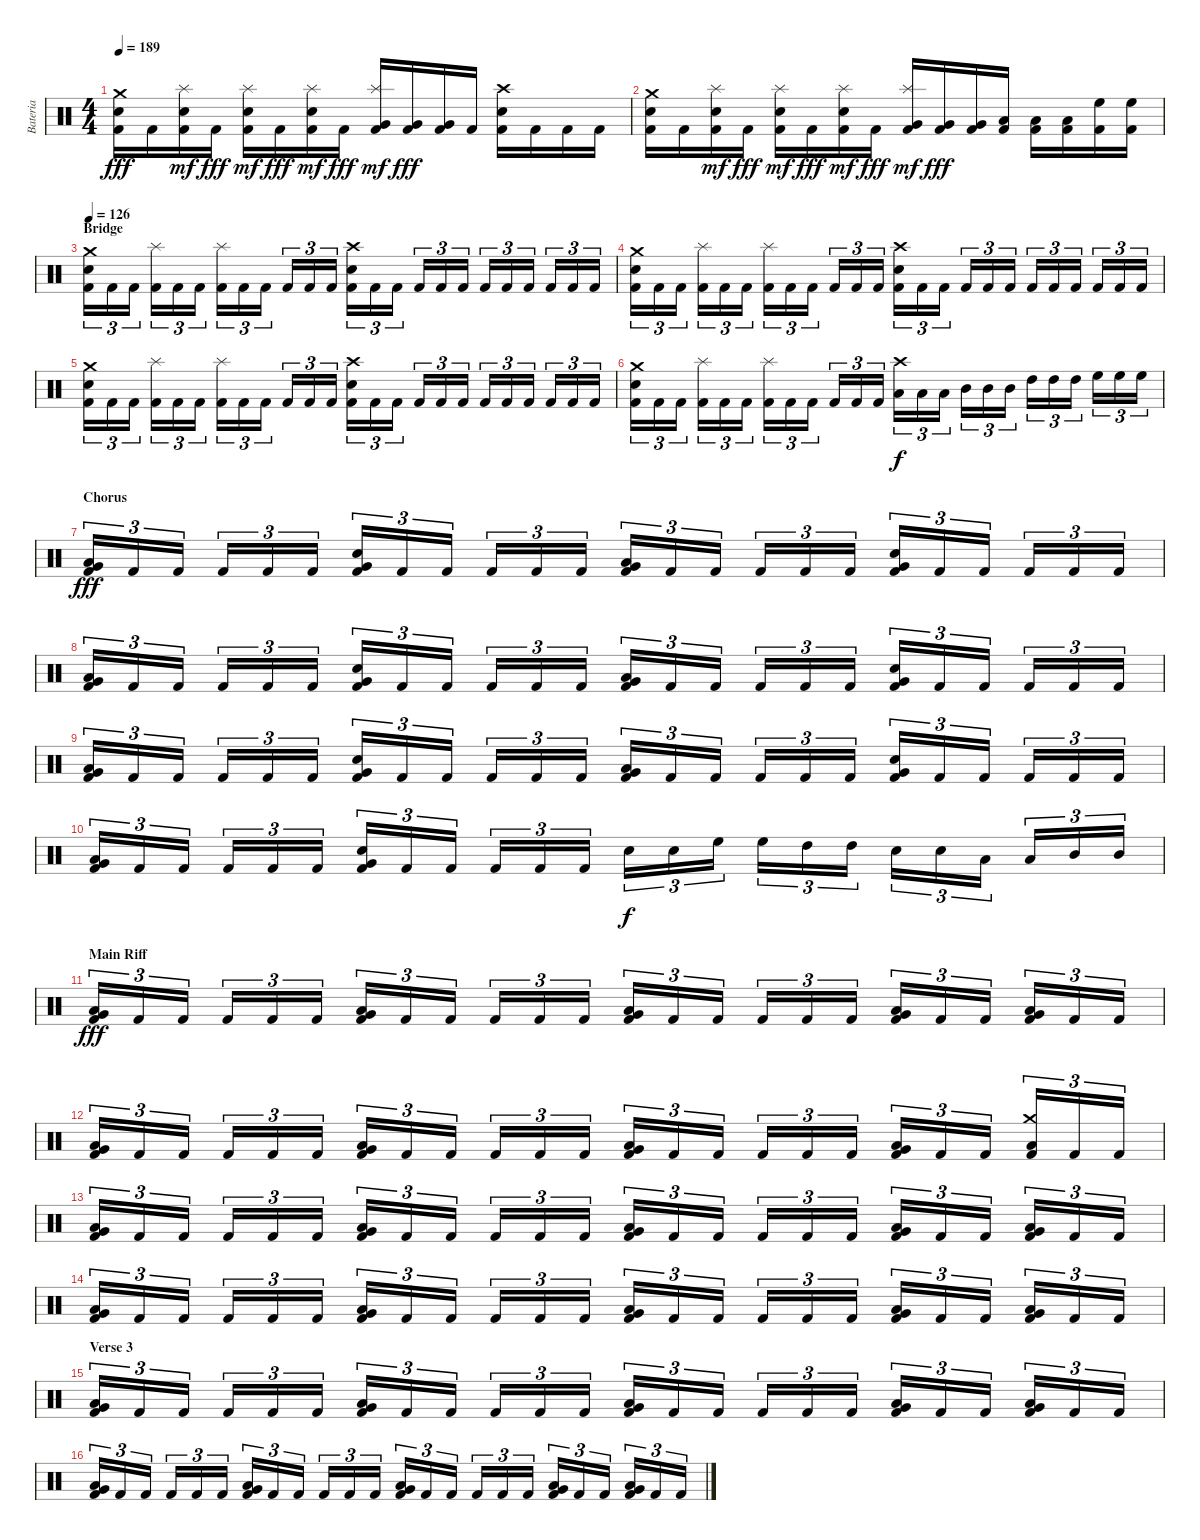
\track ("Bateria" "Bateria") {instrument percussion}
\staff {score}
\articulation defaults
\ts (4 4)
\tempo 189
\clef neutral
\ks c
("Kick (hit) 2" "Electric Snare (hit)" "Crash medium (hit)").16{dy fff} "Kick (hit) 2".16 ("Kick (hit) 2" "Electric Snare (hit)" "Splash (hit)").16{dy mf} "Kick (hit) 2".16{dy fff} ("Kick (hit) 2" "Electric Snare (hit)" "Splash (hit)").16{dy mf} "Kick (hit) 2".16{dy fff} ("Kick (hit) 2" "Electric Snare (hit)" "Splash (hit)").16{dy mf} "Kick (hit) 2".16{dy fff} ("Kick (hit) 2" "Very Low Tom (hit)" "Splash (hit)").16{dy mf} ("Kick (hit) 2" "Very Low Tom (hit)").16{dy fff} ("Kick (hit) 2" "Very Low Tom (hit)").16 "Kick (hit) 2".16 ("Kick (hit) 2" "Electric Snare (hit)" "Crash high (hit)").16 "Kick (hit) 2".16 "Kick (hit) 2".16 "Kick (hit) 2".16 |
("Kick (hit) 2" "Electric Snare (hit)" "Crash medium (hit)").16 "Kick (hit) 2".16 ("Kick (hit) 2" "Electric Snare (hit)" "Splash (hit)").16{dy mf} "Kick (hit) 2".16{dy fff} ("Kick (hit) 2" "Electric Snare (hit)" "Splash (hit)").16{dy mf} "Kick (hit) 2".16{dy fff} ("Kick (hit) 2" "Electric Snare (hit)" "Splash (hit)").16{dy mf} "Kick (hit) 2".16{dy fff} ("Kick (hit) 2" "Very Low Tom (hit)" "Splash (hit)").16{dy mf} ("Kick (hit) 2" "Very Low Tom (hit)").16{dy fff} ("Kick (hit) 2" "Very Low Tom (hit)").16 ("Kick (hit) 2" "Low Floor Tom (hit)").16 ("Kick (hit) 2" "Low Floor Tom (hit)").16 ("Kick (hit) 2" "Low Floor Tom (hit)").16 ("Kick (hit) 2" "High Floor Tom (hit)").16 ("Kick (hit) 2" "High Floor Tom (hit)").16 |
\section ("" "Bridge")
\tempo 126
("Kick (hit) 2" "Electric Snare (hit)" "Crash medium (hit)").16{tu (3 2)} "Kick (hit) 2".16{tu (3 2)} "Kick (hit) 2".16{tu (3 2)} ("Kick (hit) 2" "Splash (hit)").16{tu (3 2)} "Kick (hit) 2".16{tu (3 2)} "Kick (hit) 2".16{tu (3 2)} ("Kick (hit) 2" "Splash (hit)").16{tu (3 2)} "Kick (hit) 2".16{tu (3 2)} "Kick (hit) 2".16{tu (3 2)} "Kick (hit) 2".16{tu (3 2)} "Kick (hit) 2".16{tu (3 2)} "Kick (hit) 2".16{tu (3 2)} ("Kick (hit) 2" "Electric Snare (hit)" "Crash high (hit)").16{tu (3 2)} "Kick (hit) 2".16{tu (3 2)} "Kick (hit) 2".16{tu (3 2)} "Kick (hit) 2".16{tu (3 2)} "Kick (hit) 2".16{tu (3 2)} "Kick (hit) 2".16{tu (3 2)} "Kick (hit) 2".16{tu (3 2)} "Kick (hit) 2".16{tu (3 2)} "Kick (hit) 2".16{tu (3 2)} "Kick (hit) 2".16{tu (3 2)} "Kick (hit) 2".16{tu (3 2)} "Kick (hit) 2".16{tu (3 2)} |
("Kick (hit) 2" "Electric Snare (hit)" "Crash medium (hit)").16{tu (3 2)} "Kick (hit) 2".16{tu (3 2)} "Kick (hit) 2".16{tu (3 2)} ("Kick (hit) 2" "Splash (hit)").16{tu (3 2)} "Kick (hit) 2".16{tu (3 2)} "Kick (hit) 2".16{tu (3 2)} ("Kick (hit) 2" "Splash (hit)").16{tu (3 2)} "Kick (hit) 2".16{tu (3 2)} "Kick (hit) 2".16{tu (3 2)} "Kick (hit) 2".16{tu (3 2)} "Kick (hit) 2".16{tu (3 2)} "Kick (hit) 2".16{tu (3 2)} ("Kick (hit) 2" "Electric Snare (hit)" "Crash high (hit)").16{tu (3 2)} "Kick (hit) 2".16{tu (3 2)} "Kick (hit) 2".16{tu (3 2)} "Kick (hit) 2".16{tu (3 2)} "Kick (hit) 2".16{tu (3 2)} "Kick (hit) 2".16{tu (3 2)} "Kick (hit) 2".16{tu (3 2)} "Kick (hit) 2".16{tu (3 2)} "Kick (hit) 2".16{tu (3 2)} "Kick (hit) 2".16{tu (3 2)} "Kick (hit) 2".16{tu (3 2)} "Kick (hit) 2".16{tu (3 2)} |
("Kick (hit) 2" "Electric Snare (hit)" "Crash medium (hit)").16{tu (3 2)} "Kick (hit) 2".16{tu (3 2)} "Kick (hit) 2".16{tu (3 2)} ("Kick (hit) 2" "Splash (hit)").16{tu (3 2)} "Kick (hit) 2".16{tu (3 2)} "Kick (hit) 2".16{tu (3 2)} ("Kick (hit) 2" "Splash (hit)").16{tu (3 2)} "Kick (hit) 2".16{tu (3 2)} "Kick (hit) 2".16{tu (3 2)} "Kick (hit) 2".16{tu (3 2)} "Kick (hit) 2".16{tu (3 2)} "Kick (hit) 2".16{tu (3 2)} ("Kick (hit) 2" "Electric Snare (hit)" "Crash high (hit)").16{tu (3 2)} "Kick (hit) 2".16{tu (3 2)} "Kick (hit) 2".16{tu (3 2)} "Kick (hit) 2".16{tu (3 2)} "Kick (hit) 2".16{tu (3 2)} "Kick (hit) 2".16{tu (3 2)} "Kick (hit) 2".16{tu (3 2)} "Kick (hit) 2".16{tu (3 2)} "Kick (hit) 2".16{tu (3 2)} "Kick (hit) 2".16{tu (3 2)} "Kick (hit) 2".16{tu (3 2)} "Kick (hit) 2".16{tu (3 2)} |
("Kick (hit) 2" "Electric Snare (hit)" "Crash medium (hit)").16{tu (3 2)} "Kick (hit) 2".16{tu (3 2)} "Kick (hit) 2".16{tu (3 2)} ("Kick (hit) 2" "Splash (hit)").16{tu (3 2)} "Kick (hit) 2".16{tu (3 2)} "Kick (hit) 2".16{tu (3 2)} ("Kick (hit) 2" "Splash (hit)").16{tu (3 2)} "Kick (hit) 2".16{tu (3 2)} "Kick (hit) 2".16{tu (3 2)} "Kick (hit) 2".16{tu (3 2)} "Kick (hit) 2".16{tu (3 2)} "Kick (hit) 2".16{tu (3 2)} ("Low Tom (hit)" "Crash high (hit)").16{tu (3 2) dy f} "Low Tom (hit)".16{tu (3 2)} "Low Tom (hit)".16{tu (3 2)} "Mid Tom (hit)".16{tu (3 2)} "Mid Tom (hit)".16{tu (3 2)} "Mid Tom (hit)".16{tu (3 2)} "High Tom (hit)".16{tu (3 2)} "High Tom (hit)".16{tu (3 2)} "High Tom (hit)".16{tu (3 2)} "High Floor Tom (hit)".16{tu (3 2)} "High Floor Tom (hit)".16{tu (3 2)} "High Floor Tom (hit)".16{tu (3 2)} |
\section ("" "Chorus")
("Kick (hit) 2" "Low Floor Tom (hit)" "Very Low Tom (hit)").16{tu (3 2) dy fff} "Kick (hit) 2".16{tu (3 2)} "Kick (hit) 2".16{tu (3 2)} "Kick (hit) 2".16{tu (3 2)} "Kick (hit) 2".16{tu (3 2)} "Kick (hit) 2".16{tu (3 2)} ("Kick (hit) 2" "Electric Snare (hit)" "Very Low Tom (hit)").16{tu (3 2)} "Kick (hit) 2".16{tu (3 2)} "Kick (hit) 2".16{tu (3 2)} "Kick (hit) 2".16{tu (3 2)} "Kick (hit) 2".16{tu (3 2)} "Kick (hit) 2".16{tu (3 2)} ("Kick (hit) 2" "Low Floor Tom (hit)" "Very Low Tom (hit)").16{tu (3 2)} "Kick (hit) 2".16{tu (3 2)} "Kick (hit) 2".16{tu (3 2)} "Kick (hit) 2".16{tu (3 2)} "Kick (hit) 2".16{tu (3 2)} "Kick (hit) 2".16{tu (3 2)} ("Kick (hit) 2" "Electric Snare (hit)" "Very Low Tom (hit)").16{tu (3 2)} "Kick (hit) 2".16{tu (3 2)} "Kick (hit) 2".16{tu (3 2)} "Kick (hit) 2".16{tu (3 2)} "Kick (hit) 2".16{tu (3 2)} "Kick (hit) 2".16{tu (3 2)} |
("Kick (hit) 2" "Low Floor Tom (hit)" "Very Low Tom (hit)").16{tu (3 2)} "Kick (hit) 2".16{tu (3 2)} "Kick (hit) 2".16{tu (3 2)} "Kick (hit) 2".16{tu (3 2)} "Kick (hit) 2".16{tu (3 2)} "Kick (hit) 2".16{tu (3 2)} ("Kick (hit) 2" "Electric Snare (hit)" "Very Low Tom (hit)").16{tu (3 2)} "Kick (hit) 2".16{tu (3 2)} "Kick (hit) 2".16{tu (3 2)} "Kick (hit) 2".16{tu (3 2)} "Kick (hit) 2".16{tu (3 2)} "Kick (hit) 2".16{tu (3 2)} ("Kick (hit) 2" "Low Floor Tom (hit)" "Very Low Tom (hit)").16{tu (3 2)} "Kick (hit) 2".16{tu (3 2)} "Kick (hit) 2".16{tu (3 2)} "Kick (hit) 2".16{tu (3 2)} "Kick (hit) 2".16{tu (3 2)} "Kick (hit) 2".16{tu (3 2)} ("Kick (hit) 2" "Electric Snare (hit)" "Very Low Tom (hit)").16{tu (3 2)} "Kick (hit) 2".16{tu (3 2)} "Kick (hit) 2".16{tu (3 2)} "Kick (hit) 2".16{tu (3 2)} "Kick (hit) 2".16{tu (3 2)} "Kick (hit) 2".16{tu (3 2)} |
("Kick (hit) 2" "Low Floor Tom (hit)" "Very Low Tom (hit)").16{tu (3 2)} "Kick (hit) 2".16{tu (3 2)} "Kick (hit) 2".16{tu (3 2)} "Kick (hit) 2".16{tu (3 2)} "Kick (hit) 2".16{tu (3 2)} "Kick (hit) 2".16{tu (3 2)} ("Kick (hit) 2" "Electric Snare (hit)" "Very Low Tom (hit)").16{tu (3 2)} "Kick (hit) 2".16{tu (3 2)} "Kick (hit) 2".16{tu (3 2)} "Kick (hit) 2".16{tu (3 2)} "Kick (hit) 2".16{tu (3 2)} "Kick (hit) 2".16{tu (3 2)} ("Kick (hit) 2" "Low Floor Tom (hit)" "Very Low Tom (hit)").16{tu (3 2)} "Kick (hit) 2".16{tu (3 2)} "Kick (hit) 2".16{tu (3 2)} "Kick (hit) 2".16{tu (3 2)} "Kick (hit) 2".16{tu (3 2)} "Kick (hit) 2".16{tu (3 2)} ("Kick (hit) 2" "Electric Snare (hit)" "Very Low Tom (hit)").16{tu (3 2)} "Kick (hit) 2".16{tu (3 2)} "Kick (hit) 2".16{tu (3 2)} "Kick (hit) 2".16{tu (3 2)} "Kick (hit) 2".16{tu (3 2)} "Kick (hit) 2".16{tu (3 2)} |
("Kick (hit) 2" "Low Floor Tom (hit)" "Very Low Tom (hit)").16{tu (3 2)} "Kick (hit) 2".16{tu (3 2)} "Kick (hit) 2".16{tu (3 2)} "Kick (hit) 2".16{tu (3 2)} "Kick (hit) 2".16{tu (3 2)} "Kick (hit) 2".16{tu (3 2)} ("Kick (hit) 2" "Electric Snare (hit)" "Very Low Tom (hit)").16{tu (3 2)} "Kick (hit) 2".16{tu (3 2)} "Kick (hit) 2".16{tu (3 2)} "Kick (hit) 2".16{tu (3 2)} "Kick (hit) 2".16{tu (3 2)} "Kick (hit) 2".16{tu (3 2)} "Electric Snare (hit)".16{tu (3 2) dy f} "Electric Snare (hit)".16{tu (3 2)} "High Floor Tom (hit)".16{tu (3 2)} "High Floor Tom (hit)".16{tu (3 2)} "High Tom (hit)".16{tu (3 2)} "High Tom (hit)".16{tu (3 2)} "Electric Snare (hit)".16{tu (3 2)} "Electric Snare (hit)".16{tu (3 2)} "Low Tom (hit)".16{tu (3 2)} "Low Tom (hit)".16{tu (3 2)} "Mid Tom (hit)".16{tu (3 2)} "Mid Tom (hit)".16{tu (3 2)} |
\section ("" "Main Riff")
("Kick (hit) 2" "Low Floor Tom (hit)" "Very Low Tom (hit)").16{tu (3 2) dy fff} "Kick (hit) 2".16{tu (3 2)} "Kick (hit) 2".16{tu (3 2)} "Kick (hit) 2".16{tu (3 2)} "Kick (hit) 2".16{tu (3 2)} "Kick (hit) 2".16{tu (3 2)} ("Kick (hit) 2" "Low Floor Tom (hit)" "Very Low Tom (hit)").16{tu (3 2)} "Kick (hit) 2".16{tu (3 2)} "Kick (hit) 2".16{tu (3 2)} "Kick (hit) 2".16{tu (3 2)} "Kick (hit) 2".16{tu (3 2)} "Kick (hit) 2".16{tu (3 2)} ("Kick (hit) 2" "Low Floor Tom (hit)" "Very Low Tom (hit)").16{tu (3 2)} "Kick (hit) 2".16{tu (3 2)} "Kick (hit) 2".16{tu (3 2)} "Kick (hit) 2".16{tu (3 2)} "Kick (hit) 2".16{tu (3 2)} "Kick (hit) 2".16{tu (3 2)} ("Kick (hit) 2" "Low Floor Tom (hit)" "Very Low Tom (hit)").16{tu (3 2)} "Kick (hit) 2".16{tu (3 2)} "Kick (hit) 2".16{tu (3 2)} ("Kick (hit) 2" "Low Floor Tom (hit)" "Very Low Tom (hit)").16{tu (3 2)} "Kick (hit) 2".16{tu (3 2)} "Kick (hit) 2".16{tu (3 2)} |
("Kick (hit) 2" "Low Floor Tom (hit)" "Very Low Tom (hit)").16{tu (3 2)} "Kick (hit) 2".16{tu (3 2)} "Kick (hit) 2".16{tu (3 2)} "Kick (hit) 2".16{tu (3 2)} "Kick (hit) 2".16{tu (3 2)} "Kick (hit) 2".16{tu (3 2)} ("Kick (hit) 2" "Low Floor Tom (hit)" "Very Low Tom (hit)").16{tu (3 2)} "Kick (hit) 2".16{tu (3 2)} "Kick (hit) 2".16{tu (3 2)} "Kick (hit) 2".16{tu (3 2)} "Kick (hit) 2".16{tu (3 2)} "Kick (hit) 2".16{tu (3 2)} ("Kick (hit) 2" "Low Floor Tom (hit)" "Very Low Tom (hit)").16{tu (3 2)} "Kick (hit) 2".16{tu (3 2)} "Kick (hit) 2".16{tu (3 2)} "Kick (hit) 2".16{tu (3 2)} "Kick (hit) 2".16{tu (3 2)} "Kick (hit) 2".16{tu (3 2)} ("Kick (hit) 2" "Low Floor Tom (hit)" "Very Low Tom (hit)").16{tu (3 2)} "Kick (hit) 2".16{tu (3 2)} "Kick (hit) 2".16{tu (3 2)} ("Kick (hit) 2" "Low Floor Tom (hit)" "Crash medium (hit)").16{tu (3 2)} "Kick (hit) 2".16{tu (3 2)} "Kick (hit) 2".16{tu (3 2)} |
("Kick (hit) 2" "Low Floor Tom (hit)" "Very Low Tom (hit)").16{tu (3 2)} "Kick (hit) 2".16{tu (3 2)} "Kick (hit) 2".16{tu (3 2)} "Kick (hit) 2".16{tu (3 2)} "Kick (hit) 2".16{tu (3 2)} "Kick (hit) 2".16{tu (3 2)} ("Kick (hit) 2" "Low Floor Tom (hit)" "Very Low Tom (hit)").16{tu (3 2)} "Kick (hit) 2".16{tu (3 2)} "Kick (hit) 2".16{tu (3 2)} "Kick (hit) 2".16{tu (3 2)} "Kick (hit) 2".16{tu (3 2)} "Kick (hit) 2".16{tu (3 2)} ("Kick (hit) 2" "Low Floor Tom (hit)" "Very Low Tom (hit)").16{tu (3 2)} "Kick (hit) 2".16{tu (3 2)} "Kick (hit) 2".16{tu (3 2)} "Kick (hit) 2".16{tu (3 2)} "Kick (hit) 2".16{tu (3 2)} "Kick (hit) 2".16{tu (3 2)} ("Kick (hit) 2" "Low Floor Tom (hit)" "Very Low Tom (hit)").16{tu (3 2)} "Kick (hit) 2".16{tu (3 2)} "Kick (hit) 2".16{tu (3 2)} ("Kick (hit) 2" "Low Floor Tom (hit)" "Very Low Tom (hit)").16{tu (3 2)} "Kick (hit) 2".16{tu (3 2)} "Kick (hit) 2".16{tu (3 2)} |
("Kick (hit) 2" "Low Floor Tom (hit)" "Very Low Tom (hit)").16{tu (3 2)} "Kick (hit) 2".16{tu (3 2)} "Kick (hit) 2".16{tu (3 2)} "Kick (hit) 2".16{tu (3 2)} "Kick (hit) 2".16{tu (3 2)} "Kick (hit) 2".16{tu (3 2)} ("Kick (hit) 2" "Low Floor Tom (hit)" "Very Low Tom (hit)").16{tu (3 2)} "Kick (hit) 2".16{tu (3 2)} "Kick (hit) 2".16{tu (3 2)} "Kick (hit) 2".16{tu (3 2)} "Kick (hit) 2".16{tu (3 2)} "Kick (hit) 2".16{tu (3 2)} ("Kick (hit) 2" "Low Floor Tom (hit)" "Very Low Tom (hit)").16{tu (3 2)} "Kick (hit) 2".16{tu (3 2)} "Kick (hit) 2".16{tu (3 2)} "Kick (hit) 2".16{tu (3 2)} "Kick (hit) 2".16{tu (3 2)} "Kick (hit) 2".16{tu (3 2)} ("Kick (hit) 2" "Low Floor Tom (hit)" "Very Low Tom (hit)").16{tu (3 2)} "Kick (hit) 2".16{tu (3 2)} "Kick (hit) 2".16{tu (3 2)} ("Kick (hit) 2" "Low Floor Tom (hit)" "Very Low Tom (hit)").16{tu (3 2)} "Kick (hit) 2".16{tu (3 2)} "Kick (hit) 2".16{tu (3 2)} |
\section ("" "Verse 3")
("Kick (hit) 2" "Low Floor Tom (hit)" "Very Low Tom (hit)").16{tu (3 2)} "Kick (hit) 2".16{tu (3 2)} "Kick (hit) 2".16{tu (3 2)} "Kick (hit) 2".16{tu (3 2)} "Kick (hit) 2".16{tu (3 2)} "Kick (hit) 2".16{tu (3 2)} ("Kick (hit) 2" "Low Floor Tom (hit)" "Very Low Tom (hit)").16{tu (3 2)} "Kick (hit) 2".16{tu (3 2)} "Kick (hit) 2".16{tu (3 2)} "Kick (hit) 2".16{tu (3 2)} "Kick (hit) 2".16{tu (3 2)} "Kick (hit) 2".16{tu (3 2)} ("Kick (hit) 2" "Low Floor Tom (hit)" "Very Low Tom (hit)").16{tu (3 2)} "Kick (hit) 2".16{tu (3 2)} "Kick (hit) 2".16{tu (3 2)} "Kick (hit) 2".16{tu (3 2)} "Kick (hit) 2".16{tu (3 2)} "Kick (hit) 2".16{tu (3 2)} ("Kick (hit) 2" "Low Floor Tom (hit)" "Very Low Tom (hit)").16{tu (3 2)} "Kick (hit) 2".16{tu (3 2)} "Kick (hit) 2".16{tu (3 2)} ("Kick (hit) 2" "Low Floor Tom (hit)" "Very Low Tom (hit)").16{tu (3 2)} "Kick (hit) 2".16{tu (3 2)} "Kick (hit) 2".16{tu (3 2)} |
("Kick (hit) 2" "Low Floor Tom (hit)" "Very Low Tom (hit)").16{tu (3 2)} "Kick (hit) 2".16{tu (3 2)} "Kick (hit) 2".16{tu (3 2)} "Kick (hit) 2".16{tu (3 2)} "Kick (hit) 2".16{tu (3 2)} "Kick (hit) 2".16{tu (3 2)} ("Kick (hit) 2" "Low Floor Tom (hit)" "Very Low Tom (hit)").16{tu (3 2)} "Kick (hit) 2".16{tu (3 2)} "Kick (hit) 2".16{tu (3 2)} "Kick (hit) 2".16{tu (3 2)} "Kick (hit) 2".16{tu (3 2)} "Kick (hit) 2".16{tu (3 2)} ("Kick (hit) 2" "Low Floor Tom (hit)" "Very Low Tom (hit)").16{tu (3 2)} "Kick (hit) 2".16{tu (3 2)} "Kick (hit) 2".16{tu (3 2)} "Kick (hit) 2".16{tu (3 2)} "Kick (hit) 2".16{tu (3 2)} "Kick (hit) 2".16{tu (3 2)} ("Kick (hit) 2" "Low Floor Tom (hit)" "Very Low Tom (hit)").16{tu (3 2)} "Kick (hit) 2".16{tu (3 2)} "Kick (hit) 2".16{tu (3 2)} ("Kick (hit) 2" "Low Floor Tom (hit)" "Very Low Tom (hit)").16{tu (3 2)} "Kick (hit) 2".16{tu (3 2)} "Kick (hit) 2".16{tu (3 2)}
